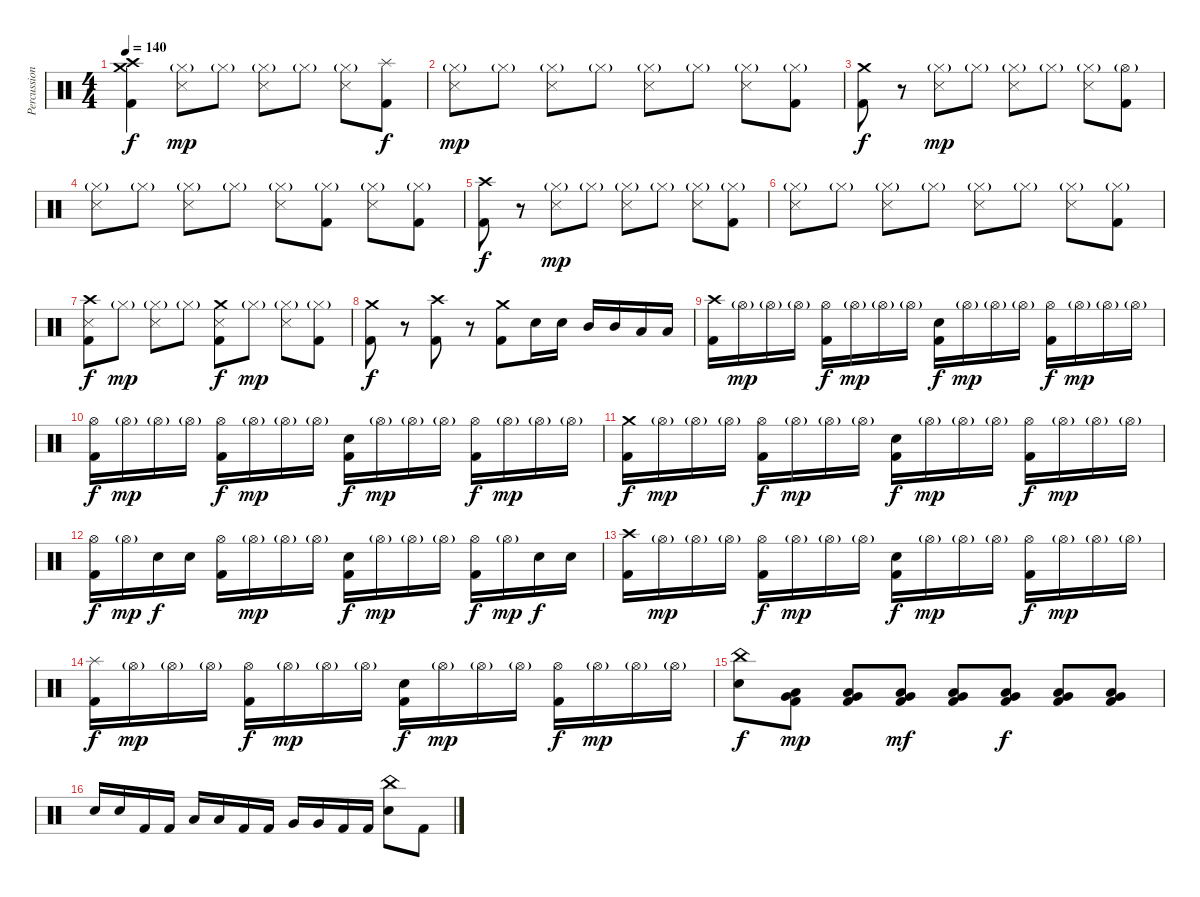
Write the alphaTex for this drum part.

\track ("Percussion" "Percussion") {instrument percussion}
\staff {score}
\articulation defaults
\ts (4 4)
\tempo 140
\clef neutral
\ks c
("Crash medium (hit)" "Crash high (hit)" "Kick (hit) 2").4{dy f} ("Hi-Hat (closed)"{g} "Snare (side stick) 3").8{dy mp} "Hi-Hat (closed)"{g}.8 ("Hi-Hat (closed)"{g} "Snare (side stick) 3").8 "Hi-Hat (closed)"{g}.8 ("Hi-Hat (closed)"{g} "Snare (side stick) 3").8 ("Splash (hit)" "Kick (hit) 2").8{dy f} |
("Hi-Hat (closed)"{g} "Snare (side stick) 3").8{dy mp} "Hi-Hat (closed)"{g}.8 ("Hi-Hat (closed)"{g} "Snare (side stick) 3").8 "Hi-Hat (closed)"{g}.8 ("Hi-Hat (closed)"{g} "Snare (side stick) 3").8 "Hi-Hat (closed)"{g}.8 ("Hi-Hat (closed)"{g} "Snare (side stick) 3").8 ("Hi-Hat (closed)"{g} "Kick (hit) 2").8 |
("Crash medium (hit)" "Kick (hit) 2").8{dy f} r.8 ("Hi-Hat (closed)"{g} "Snare (side stick) 3").8{dy mp} "Hi-Hat (closed)"{g}.8 ("Hi-Hat (closed)"{g} "Snare (side stick) 3").8 "Hi-Hat (closed)"{g}.8 ("Hi-Hat (closed)"{g} "Snare (side stick) 3").8 ("Hi-Hat (open)"{g} "Kick (hit) 2").8 |
("Hi-Hat (closed)"{g} "Snare (side stick) 3").8 "Hi-Hat (closed)"{g}.8 ("Hi-Hat (closed)"{g} "Snare (side stick) 3").8 "Hi-Hat (closed)"{g}.8 ("Hi-Hat (closed)"{g} "Snare (side stick) 3").8 ("Hi-Hat (closed)"{g} "Kick (hit) 2").8 ("Hi-Hat (closed)"{g} "Snare (side stick) 3").8 ("Hi-Hat (closed)"{g} "Kick (hit) 2").8 |
("Crash high (hit)" "Kick (hit) 2").8{dy f} r.8 ("Hi-Hat (closed)"{g} "Snare (side stick) 3").8{dy mp} "Hi-Hat (closed)"{g}.8 ("Hi-Hat (closed)"{g} "Snare (side stick) 3").8 "Hi-Hat (closed)"{g}.8 ("Hi-Hat (closed)"{g} "Snare (side stick) 3").8 ("Hi-Hat (closed)"{g} "Kick (hit) 2").8 |
("Hi-Hat (closed)"{g} "Snare (side stick) 3").8 "Hi-Hat (closed)"{g}.8 ("Hi-Hat (closed)"{g} "Snare (side stick) 3").8 "Hi-Hat (closed)"{g}.8 ("Hi-Hat (closed)"{g} "Snare (side stick) 3").8 "Hi-Hat (closed)"{g}.8 ("Hi-Hat (closed)"{g} "Snare (side stick) 3").8 ("Hi-Hat (closed)"{g} "Kick (hit) 2").8 |
("Crash high (hit)" "Snare (side stick) 3" "Kick (hit) 2").8{dy f} "Hi-Hat (closed)"{g}.8{dy mp} ("Hi-Hat (closed)"{g} "Snare (side stick) 3").8 "Hi-Hat (closed)"{g}.8 ("Crash medium (hit)" "Snare (side stick) 3" "Kick (hit) 2").8{dy f} "Hi-Hat (closed)"{g}.8{dy mp} ("Hi-Hat (closed)"{g} "Snare (side stick) 3").8 ("Hi-Hat (closed)"{g} "Kick (hit) 2").8 |
("Crash medium (hit)" "Kick (hit) 2").8{dy f} r.8 ("Crash high (hit)" "Kick (hit) 2").8 r.8 ("Crash medium (hit)" "Kick (hit) 2").8 "Electric Snare (hit)".16 "Electric Snare (hit)".16 "Mid Tom (hit)".16 "Mid Tom (hit)".16 "Low Tom (hit)".16 "Low Tom (hit)".16 |
("Crash high (hit)" "Kick (hit) 2").16 "Hi-Hat (open)"{g}.16{dy mp} "Hi-Hat (open)"{g}.16 "Hi-Hat (open)"{g}.16 ("Hi-Hat (open)" "Kick (hit) 2").16{dy f} "Hi-Hat (open)"{g}.16{dy mp} "Hi-Hat (open)"{g}.16 "Hi-Hat (open)"{g}.16 ("Electric Snare (hit)" "Kick (hit) 2").16{dy f} "Hi-Hat (open)"{g}.16{dy mp} "Hi-Hat (open)"{g}.16 "Hi-Hat (open)"{g}.16 ("Hi-Hat (open)" "Kick (hit) 2").16{dy f} "Hi-Hat (open)"{g}.16{dy mp} "Hi-Hat (open)"{g}.16 "Hi-Hat (open)"{g}.16 |
("Hi-Hat (open)" "Kick (hit) 2").16{dy f} "Hi-Hat (open)"{g}.16{dy mp} "Hi-Hat (open)"{g}.16 "Hi-Hat (open)"{g}.16 ("Hi-Hat (open)" "Kick (hit) 2").16{dy f} "Hi-Hat (open)"{g}.16{dy mp} "Hi-Hat (open)"{g}.16 "Hi-Hat (open)"{g}.16 ("Electric Snare (hit)" "Kick (hit) 2").16{dy f} "Hi-Hat (open)"{g}.16{dy mp} "Hi-Hat (open)"{g}.16 "Hi-Hat (open)"{g}.16 ("Hi-Hat (open)" "Kick (hit) 2").16{dy f} "Hi-Hat (open)"{g}.16{dy mp} "Hi-Hat (open)"{g}.16 "Hi-Hat (open)"{g}.16 |
("Crash medium (hit)" "Kick (hit) 2").16{dy f} "Hi-Hat (open)"{g}.16{dy mp} "Hi-Hat (open)"{g}.16 "Hi-Hat (open)"{g}.16 ("Hi-Hat (open)" "Kick (hit) 2").16{dy f} "Hi-Hat (open)"{g}.16{dy mp} "Hi-Hat (open)"{g}.16 "Hi-Hat (open)"{g}.16 ("Electric Snare (hit)" "Kick (hit) 2").16{dy f} "Hi-Hat (open)"{g}.16{dy mp} "Hi-Hat (open)"{g}.16 "Hi-Hat (open)"{g}.16 ("Hi-Hat (open)" "Kick (hit) 2").16{dy f} "Hi-Hat (open)"{g}.16{dy mp} "Hi-Hat (open)"{g}.16 "Hi-Hat (open)"{g}.16 |
("Hi-Hat (open)" "Kick (hit) 2").16{dy f} "Hi-Hat (open)"{g}.16{dy mp} "Electric Snare (hit)".16{dy f} "Electric Snare (hit)".16 ("Hi-Hat (open)" "Kick (hit) 2").16 "Hi-Hat (open)"{g}.16{dy mp} "Hi-Hat (open)"{g}.16 "Hi-Hat (open)"{g}.16 ("Electric Snare (hit)" "Kick (hit) 2").16{dy f} "Hi-Hat (open)"{g}.16{dy mp} "Hi-Hat (open)"{g}.16 "Hi-Hat (open)"{g}.16 ("Hi-Hat (open)" "Kick (hit) 2").16{dy f} "Hi-Hat (open)"{g}.16{dy mp} "Electric Snare (hit)".16{dy f} "Electric Snare (hit)".16 |
("Crash high (hit)" "Kick (hit) 2").16 "Hi-Hat (open)"{g}.16{dy mp} "Hi-Hat (open)"{g}.16 "Hi-Hat (open)"{g}.16 ("Hi-Hat (open)" "Kick (hit) 2").16{dy f} "Hi-Hat (open)"{g}.16{dy mp} "Hi-Hat (open)"{g}.16 "Hi-Hat (open)"{g}.16 ("Electric Snare (hit)" "Kick (hit) 2").16{dy f} "Hi-Hat (open)"{g}.16{dy mp} "Hi-Hat (open)"{g}.16 "Hi-Hat (open)"{g}.16 ("Hi-Hat (open)" "Kick (hit) 2").16{dy f} "Hi-Hat (open)"{g}.16{dy mp} "Hi-Hat (open)"{g}.16 "Hi-Hat (open)"{g}.16 |
("Splash (hit)" "Kick (hit) 2").16{dy f} "Hi-Hat (open)"{g}.16{dy mp} "Hi-Hat (open)"{g}.16 "Hi-Hat (open)"{g}.16 ("Hi-Hat (open)" "Kick (hit) 2").16{dy f} "Hi-Hat (open)"{g}.16{dy mp} "Hi-Hat (open)"{g}.16 "Hi-Hat (open)"{g}.16 ("Electric Snare (hit)" "Kick (hit) 2").16{dy f} "Hi-Hat (open)"{g}.16{dy mp} "Hi-Hat (open)"{g}.16 "Hi-Hat (open)"{g}.16 ("Hi-Hat (open)" "Kick (hit) 2").16{dy f} "Hi-Hat (open)"{g}.16{dy mp} "Hi-Hat (open)"{g}.16 "Hi-Hat (open)"{g}.16 |
("China (hit)" "Electric Snare (hit)").8{dy f} ("Very Low Tom (hit)" "Low Floor Tom (hit)" "Kick (hit) 2").8{dy mp} ("Very Low Tom (hit)" "Low Floor Tom (hit)" "Kick (hit) 2").8 ("Very Low Tom (hit)" "Low Floor Tom (hit)" "Kick (hit) 2").8{dy mf} ("Very Low Tom (hit)" "Low Floor Tom (hit)" "Kick (hit) 2").8 ("Very Low Tom (hit)" "Low Floor Tom (hit)" "Kick (hit) 2").8{dy f} ("Very Low Tom (hit)" "Low Floor Tom (hit)" "Kick (hit) 2").8 ("Very Low Tom (hit)" "Low Floor Tom (hit)" "Kick (hit) 2").8 |
"Electric Snare (hit)".16 "Electric Snare (hit)".16 "Kick (hit) 2".16 "Kick (hit) 2".16 "Low Tom (hit)".16 "Low Tom (hit)".16 "Kick (hit) 2".16 "Kick (hit) 2".16 "Very Low Tom (hit)".16 "Very Low Tom (hit)".16 "Kick (hit) 2".16 "Kick (hit) 2".16 ("China (hit)" "Electric Snare (hit)").8 "Kick (hit) 2".8
